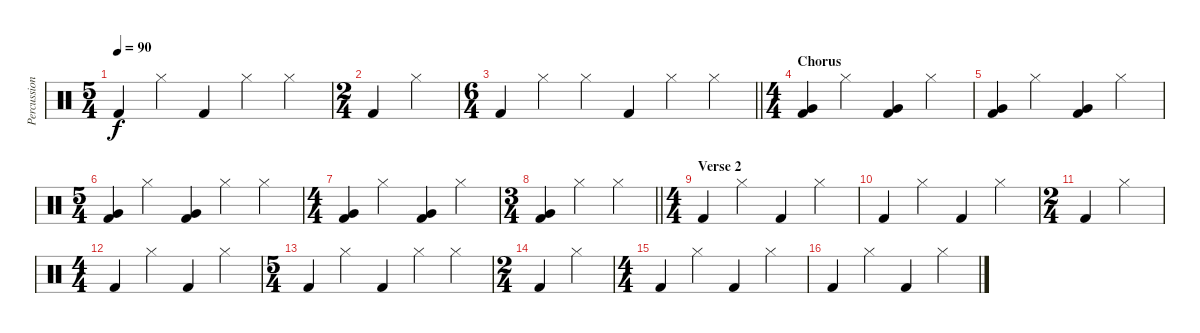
\track ("Percussion" "Percussion") {instrument percussion}
\staff {score}
\articulation defaults
\ts (5 4)
\tempo 90
\clef neutral
\ks c "Kick (hit) 2".4{dy f volume 3} "Hi-Hat (closed)".4{volume 13} "Kick (hit) 2".4{volume 3} "Hi-Hat (closed)".4{volume 13} "Hi-Hat (closed)".4
|
\ts (2 4)
"Kick (hit) 2".4{volume 3} "Hi-Hat (closed)".4{volume 13} |
\ts (6 4)
\barLineRight lightlight "Kick (hit) 2".4{volume 3} "Hi-Hat (closed)".4{volume 13} "Hi-Hat (closed)".4 "Kick (hit) 2".4{volume 3} "Hi-Hat (closed)".4{volume 13} "Hi-Hat (closed)".4
|
\ts (4 4)
\section ("" "Chorus")
("Very Low Tom (hit)" "Kick (hit) 2").4{volume 3} "Hi-Hat (closed)".4{volume 13} ("Very Low Tom (hit)" "Kick (hit) 2").4{volume 3} "Hi-Hat (closed)".4{volume 13} |
("Very Low Tom (hit)" "Kick (hit) 2").4{volume 3} "Hi-Hat (closed)".4{volume 13} ("Very Low Tom (hit)" "Kick (hit) 2").4{volume 3} "Hi-Hat (closed)".4{volume 13} |
\ts (5 4)
("Very Low Tom (hit)" "Kick (hit) 2").4{volume 3} "Hi-Hat (closed)".4{volume 13} ("Very Low Tom (hit)" "Kick (hit) 2").4{volume 3} "Hi-Hat (closed)".4{volume 13} "Hi-Hat (closed)".4 |
\ts (4 4)
("Very Low Tom (hit)" "Kick (hit) 2").4{volume 3} "Hi-Hat (closed)".4{volume 13} ("Very Low Tom (hit)" "Kick (hit) 2").4{volume 3} "Hi-Hat (closed)".4{volume 13} |
\ts (3 4)
\barLineRight lightlight
("Very Low Tom (hit)" "Kick (hit) 2").4{volume 3} "Hi-Hat (closed)".4{volume 13} "Hi-Hat (closed)".4 |
\ts (4 4)
\section ("" "Verse 2")
"Kick (hit) 2".4{volume 3} "Hi-Hat (closed)".4{volume 13} "Kick (hit) 2".4{volume 3} "Hi-Hat (closed)".4{volume 13} |
"Kick (hit) 2".4{volume 3} "Hi-Hat (closed)".4{volume 13} "Kick (hit) 2".4{volume 3} "Hi-Hat (closed)".4{volume 13} |
\ts (2 4)
"Kick (hit) 2".4{volume 3} "Hi-Hat (closed)".4{volume 13} |
\ts (4 4)
"Kick (hit) 2".4{volume 3} "Hi-Hat (closed)".4{volume 13} "Kick (hit) 2".4{volume 3} "Hi-Hat (closed)".4{volume 13} |
\ts (5 4)
"Kick (hit) 2".4{volume 3} "Hi-Hat (closed)".4{volume 13} "Kick (hit) 2".4{volume 3} "Hi-Hat (closed)".4{volume 13} "Hi-Hat (closed)".4 |
\ts (2 4)
"Kick (hit) 2".4{volume 3} "Hi-Hat (closed)".4{volume 13} |
\ts (4 4)
"Kick (hit) 2".4{volume 3} "Hi-Hat (closed)".4{volume 13} "Kick (hit) 2".4{volume 3} "Hi-Hat (closed)".4{volume 13} |
"Kick (hit) 2".4{volume 3} "Hi-Hat (closed)".4{volume 13} "Kick (hit) 2".4{volume 3} "Hi-Hat (closed)".4{volume 13}
